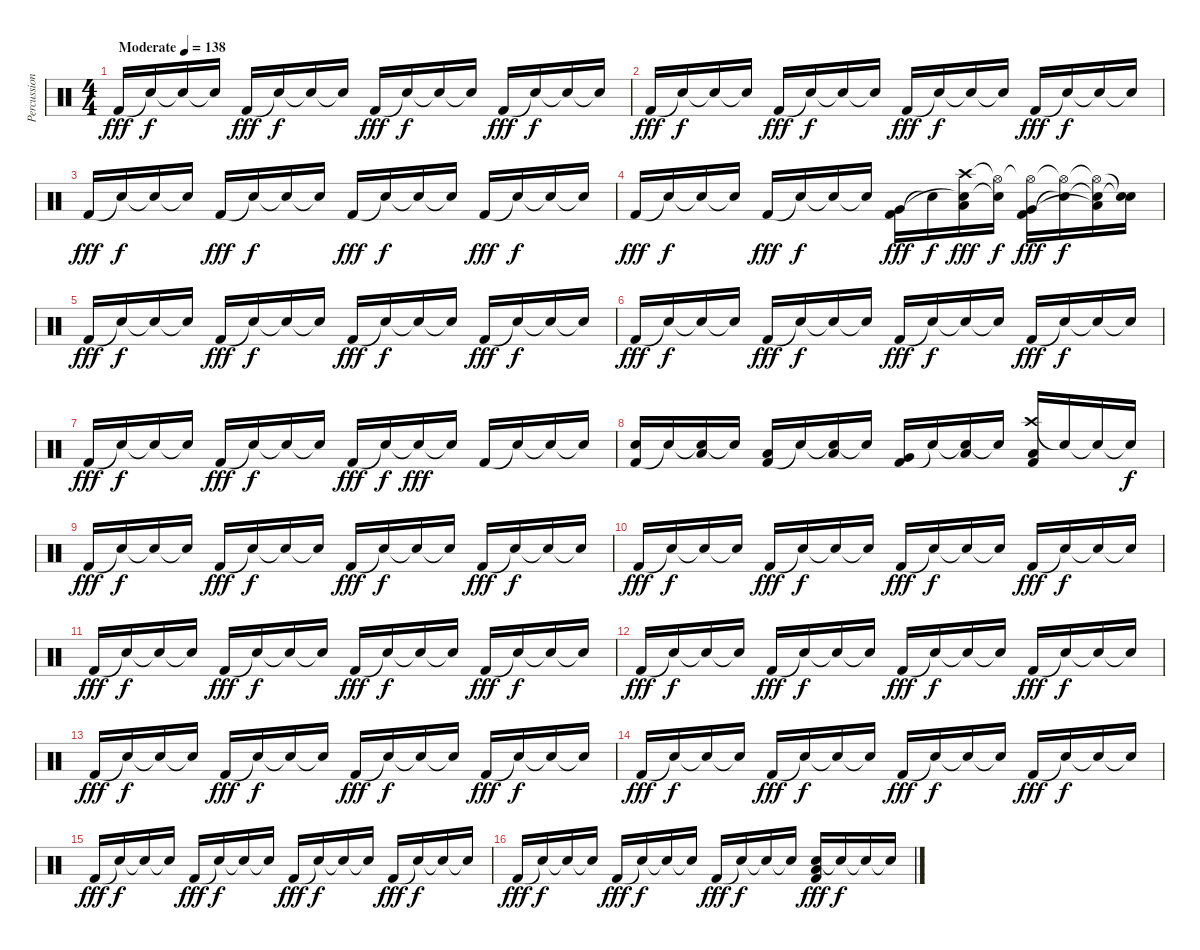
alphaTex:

\track ("Percussion" "Percussion") {instrument percussion}
\staff {score}
\articulation defaults
\ts (4 4)
\tempo (138 "Moderate")
\clef neutral
\ks c "Kick (hit) 2".16{dy fff} "Snare (hit)"{t}.16{dy f} "Snare (hit)"{t}.16 "Snare (hit)"{t}.16 "Kick (hit) 2".16{dy fff} "Snare (hit)"{t}.16{dy f} "Snare (hit)"{t}.16 "Snare (hit)"{t}.16 "Kick (hit) 2".16{dy fff} "Snare (hit)"{t}.16{dy f} "Snare (hit)"{t}.16 "Snare (hit)"{t}.16 "Kick (hit) 2".16{dy fff} "Snare (hit)"{t}.16{dy f} "Snare (hit)"{t}.16 "Snare (hit)"{t}.16
|
"Kick (hit) 2".16{dy fff} "Snare (hit)"{t}.16{dy f} "Snare (hit)"{t}.16 "Snare (hit)"{t}.16 "Kick (hit) 2".16{dy fff} "Snare (hit)"{t}.16{dy f} "Snare (hit)"{t}.16 "Snare (hit)"{t}.16 "Kick (hit) 2".16{dy fff} "Snare (hit)"{t}.16{dy f} "Snare (hit)"{t}.16 "Snare (hit)"{t}.16 "Kick (hit) 2".16{dy fff} "Snare (hit)"{t}.16{dy f} "Snare (hit)"{t}.16 "Snare (hit)"{t}.16 |
"Kick (hit) 2".16{dy fff} "Snare (hit)"{t}.16{dy f} "Snare (hit)"{t}.16 "Snare (hit)"{t}.16 "Kick (hit) 2".16{dy fff} "Snare (hit)"{t}.16{dy f} "Snare (hit)"{t}.16 "Snare (hit)"{t}.16 "Kick (hit) 2".16{dy fff} "Snare (hit)"{t}.16{dy f} "Snare (hit)"{t}.16 "Snare (hit)"{t}.16 "Kick (hit) 2".16{dy fff} "Snare (hit)"{t}.16{dy f} "Snare (hit)"{t}.16 "Snare (hit)"{t}.16 |
"Kick (hit) 2".16{dy fff} "Snare (hit)"{t}.16{dy f} "Snare (hit)"{t}.16 "Snare (hit)"{t}.16 "Kick (hit) 2".16{dy fff} "Snare (hit)"{t}.16{dy f} "Snare (hit)"{t}.16 "Snare (hit)"{t}.16 ("Kick (hit) 2" "Very Low Tom (hit)").16{dy fff} "Snare (hit)"{t}.16{dy f} ("Crash high (hit)" "Snare (hit)"{t} "Low Floor Tom (hit)").16{dy fff} ("Hi-Hat (open)"{t} "Snare (hit)"{t}).16{dy f} ("Hi-Hat (open)"{t} "Kick (hit) 2" "Very Low Tom (hit)").16{dy fff} ("Hi-Hat (open)"{t} "Snare (hit)"{t}).16{dy f} ("Hi-Hat (open)"{t} "Snare (hit)"{t} "Low Floor Tom (hit)"{t}).16 ("Snare (hit)"{t} "Snare (hit)"{t}).16 |
"Kick (hit) 2".16{dy fff} "Snare (hit)"{t}.16{dy f} "Snare (hit)"{t}.16 "Snare (hit)"{t}.16 "Kick (hit) 2".16{dy fff} "Snare (hit)"{t}.16{dy f} "Snare (hit)"{t}.16 "Snare (hit)"{t}.16 "Kick (hit) 2".16{dy fff} "Snare (hit)"{t}.16{dy f} "Snare (hit)"{t}.16 "Snare (hit)"{t}.16 "Kick (hit) 2".16{dy fff} "Snare (hit)"{t}.16{dy f} "Snare (hit)"{t}.16 "Snare (hit)"{t}.16 |
"Kick (hit) 2".16{dy fff} "Snare (hit)"{t}.16{dy f} "Snare (hit)"{t}.16 "Snare (hit)"{t}.16 "Kick (hit) 2".16{dy fff} "Snare (hit)"{t}.16{dy f} "Snare (hit)"{t}.16 "Snare (hit)"{t}.16 "Kick (hit) 2".16{dy fff} "Snare (hit)"{t}.16{dy f} "Snare (hit)"{t}.16 "Snare (hit)"{t}.16 "Kick (hit) 2".16{dy fff} "Snare (hit)"{t}.16{dy f} "Snare (hit)"{t}.16 "Snare (hit)"{t}.16 |
"Kick (hit) 2".16{dy fff} "Snare (hit)"{t}.16{dy f} "Snare (hit)"{t}.16 "Snare (hit)"{t}.16 "Kick (hit) 2".16{dy fff} "Snare (hit)"{t}.16{dy f} "Snare (hit)"{t}.16 "Snare (hit)"{t}.16 "Kick (hit) 2".16{dy fff} "Snare (hit)"{t}.16{dy f} "Snare (hit)"{t}.16{dy fff} "Snare (hit)"{t}.16 "Kick (hit) 2".16 "Snare (hit)"{t}.16 "Snare (hit)"{t}.16 "Snare (hit)"{t}.16 |
("Kick (hit) 2" "Electric Snare (hit)").16 "Snare (hit)"{t}.16 ("Snare (hit)"{t} "Low Floor Tom (hit)").16 "Snare (hit)"{t}.16 ("Kick (hit) 2" "Low Tom (hit)").16 "Snare (hit)"{t}.16 ("Snare (hit)"{t} "Low Floor Tom (hit)").16 "Snare (hit)"{t}.16 ("Kick (hit) 2" "Very Low Tom (hit)").16 "Snare (hit)"{t}.16 ("Snare (hit)"{t} "Low Floor Tom (hit)").16 "Snare (hit)"{t}.16 ("Crash high (hit)" "Kick (hit) 2" "Low Floor Tom (hit)").16 "Snare (hit)"{t}.16 "Snare (hit)"{t}.16 "Snare (hit)"{t}.16{dy f} |
"Kick (hit) 2".16{dy fff} "Snare (hit)"{t}.16{dy f} "Snare (hit)"{t}.16 "Snare (hit)"{t}.16 "Kick (hit) 2".16{dy fff} "Snare (hit)"{t}.16{dy f} "Snare (hit)"{t}.16 "Snare (hit)"{t}.16 "Kick (hit) 2".16{dy fff} "Snare (hit)"{t}.16{dy f} "Snare (hit)"{t}.16 "Snare (hit)"{t}.16 "Kick (hit) 2".16{dy fff} "Snare (hit)"{t}.16{dy f} "Snare (hit)"{t}.16 "Snare (hit)"{t}.16 |
"Kick (hit) 2".16{dy fff} "Snare (hit)"{t}.16{dy f} "Snare (hit)"{t}.16 "Snare (hit)"{t}.16 "Kick (hit) 2".16{dy fff} "Snare (hit)"{t}.16{dy f} "Snare (hit)"{t}.16 "Snare (hit)"{t}.16 "Kick (hit) 2".16{dy fff} "Snare (hit)"{t}.16{dy f} "Snare (hit)"{t}.16 "Snare (hit)"{t}.16 "Kick (hit) 2".16{dy fff} "Snare (hit)"{t}.16{dy f} "Snare (hit)"{t}.16 "Snare (hit)"{t}.16 |
"Kick (hit) 2".16{dy fff} "Snare (hit)"{t}.16{dy f} "Snare (hit)"{t}.16 "Snare (hit)"{t}.16 "Kick (hit) 2".16{dy fff} "Snare (hit)"{t}.16{dy f} "Snare (hit)"{t}.16 "Snare (hit)"{t}.16 "Kick (hit) 2".16{dy fff} "Snare (hit)"{t}.16{dy f} "Snare (hit)"{t}.16 "Snare (hit)"{t}.16 "Kick (hit) 2".16{dy fff} "Snare (hit)"{t}.16{dy f} "Snare (hit)"{t}.16 "Snare (hit)"{t}.16 |
"Kick (hit) 2".16{dy fff} "Snare (hit)"{t}.16{dy f} "Snare (hit)"{t}.16 "Snare (hit)"{t}.16 "Kick (hit) 2".16{dy fff} "Snare (hit)"{t}.16{dy f} "Snare (hit)"{t}.16 "Snare (hit)"{t}.16 "Kick (hit) 2".16{dy fff} "Snare (hit)"{t}.16{dy f} "Snare (hit)"{t}.16 "Snare (hit)"{t}.16 "Kick (hit) 2".16{dy fff} "Snare (hit)"{t}.16{dy f} "Snare (hit)"{t}.16 "Snare (hit)"{t}.16 |
"Kick (hit) 2".16{dy fff} "Snare (hit)"{t}.16{dy f} "Snare (hit)"{t}.16 "Snare (hit)"{t}.16 "Kick (hit) 2".16{dy fff} "Snare (hit)"{t}.16{dy f} "Snare (hit)"{t}.16 "Snare (hit)"{t}.16 "Kick (hit) 2".16{dy fff} "Snare (hit)"{t}.16{dy f} "Snare (hit)"{t}.16 "Snare (hit)"{t}.16 "Kick (hit) 2".16{dy fff} "Snare (hit)"{t}.16{dy f} "Snare (hit)"{t}.16 "Snare (hit)"{t}.16 |
"Kick (hit) 2".16{dy fff} "Snare (hit)"{t}.16{dy f} "Snare (hit)"{t}.16 "Snare (hit)"{t}.16 "Kick (hit) 2".16{dy fff} "Snare (hit)"{t}.16{dy f} "Snare (hit)"{t}.16 "Snare (hit)"{t}.16 "Kick (hit) 2".16{dy fff} "Snare (hit)"{t}.16{dy f} "Snare (hit)"{t}.16 "Snare (hit)"{t}.16 "Kick (hit) 2".16{dy fff} "Snare (hit)"{t}.16{dy f} "Snare (hit)"{t}.16 "Snare (hit)"{t}.16 |
"Kick (hit) 2".16{dy fff} "Snare (hit)"{t}.16{dy f} "Snare (hit)"{t}.16 "Snare (hit)"{t}.16 "Kick (hit) 2".16{dy fff} "Snare (hit)"{t}.16{dy f} "Snare (hit)"{t}.16 "Snare (hit)"{t}.16 "Kick (hit) 2".16{dy fff} "Snare (hit)"{t}.16{dy f} "Snare (hit)"{t}.16 "Snare (hit)"{t}.16 "Kick (hit) 2".16{dy fff} "Snare (hit)"{t}.16{dy f} "Snare (hit)"{t}.16 "Snare (hit)"{t}.16 |
"Kick (hit) 2".16{dy fff} "Snare (hit)"{t}.16{dy f} "Snare (hit)"{t}.16 "Snare (hit)"{t}.16 "Kick (hit) 2".16{dy fff} "Snare (hit)"{t}.16{dy f} "Snare (hit)"{t}.16 "Snare (hit)"{t}.16 "Kick (hit) 2".16{dy fff} "Snare (hit)"{t}.16{dy f} "Snare (hit)"{t}.16 "Snare (hit)"{t}.16 ("Electric Snare (hit)" "Kick (hit) 2" "Low Floor Tom (hit)").16{dy fff} "Snare (hit)"{t}.16{dy f} "Snare (hit)"{t}.16 "Snare (hit)"{t}.16
